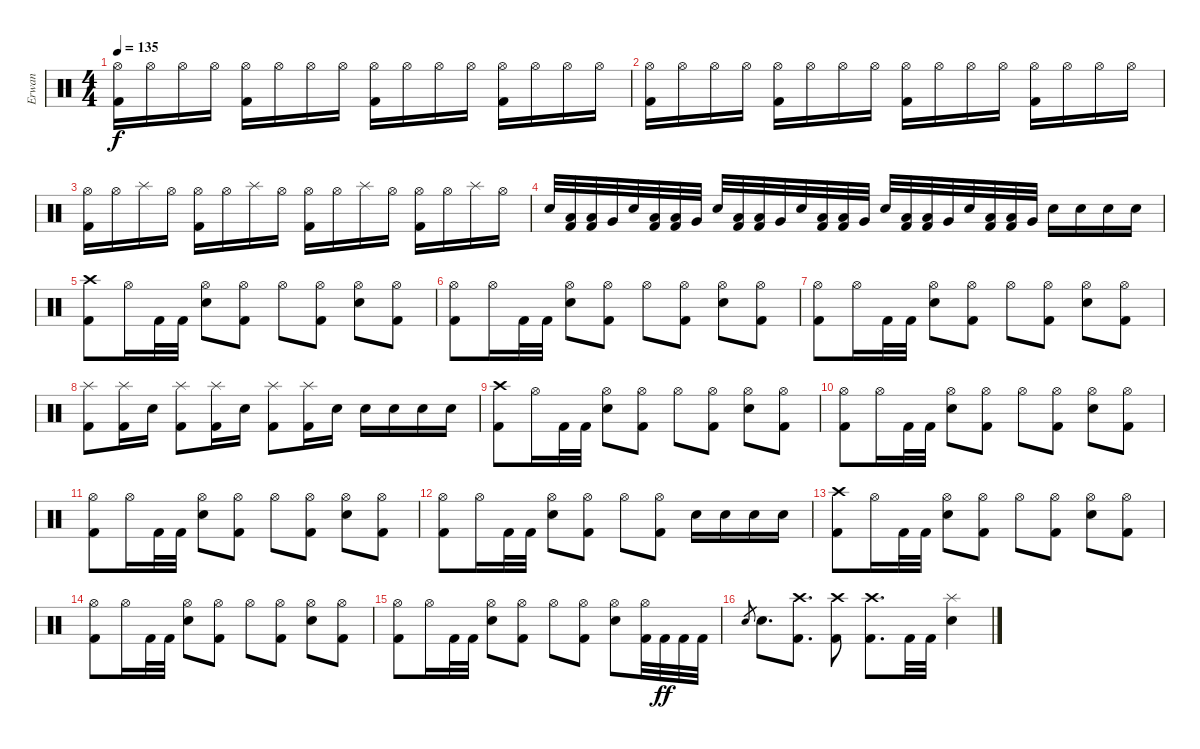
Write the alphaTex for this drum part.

\track ("Erwan" "Erwan") {instrument percussion}
\staff {score}
\articulation defaults
\ts (4 4)
\tempo 135
\clef neutral
\ks c
("Hi-Hat (open)" "Kick (hit) 2").16{dy f} "Hi-Hat (open)".16 "Hi-Hat (open)".16 "Hi-Hat (open)".16 ("Hi-Hat (open)" "Kick (hit) 2").16 "Hi-Hat (open)".16 "Hi-Hat (open)".16 "Hi-Hat (open)".16 ("Hi-Hat (open)" "Kick (hit) 2").16 "Hi-Hat (open)".16 "Hi-Hat (open)".16 "Hi-Hat (open)".16 ("Hi-Hat (open)" "Kick (hit) 2").16 "Hi-Hat (open)".16 "Hi-Hat (open)".16 "Hi-Hat (open)".16 |
("Hi-Hat (open)" "Kick (hit) 2").16 "Hi-Hat (open)".16 "Hi-Hat (open)".16 "Hi-Hat (open)".16 ("Hi-Hat (open)" "Kick (hit) 2").16 "Hi-Hat (open)".16 "Hi-Hat (open)".16 "Hi-Hat (open)".16 ("Hi-Hat (open)" "Kick (hit) 2").16 "Hi-Hat (open)".16 "Hi-Hat (open)".16 "Hi-Hat (open)".16 ("Hi-Hat (open)" "Kick (hit) 2").16 "Hi-Hat (open)".16 "Hi-Hat (open)".16 "Hi-Hat (open)".16 |
("Hi-Hat (open)" "Kick (hit) 2").16 "Hi-Hat (open)".16 "Splash (hit)".16 "Hi-Hat (open)".16 ("Hi-Hat (open)" "Kick (hit) 2").16 "Hi-Hat (open)".16 "Splash (hit)".16 "Hi-Hat (open)".16 ("Hi-Hat (open)" "Kick (hit) 2").16 "Hi-Hat (open)".16 "Splash (hit)".16 "Hi-Hat (open)".16 ("Hi-Hat (open)" "Kick (hit) 2").16 "Hi-Hat (open)".16 "Splash (hit)".16 "Hi-Hat (open)".16 |
"Electric Snare (hit)".32 ("Low Tom (hit)" "Kick (hit) 2").32 ("Low Tom (hit)" "Kick (hit) 2").32 "Very Low Tom (hit)".32 "Electric Snare (hit)".32 ("Low Tom (hit)" "Kick (hit) 2").32 ("Low Tom (hit)" "Kick (hit) 2").32 "Very Low Tom (hit)".32 "Electric Snare (hit)".32 ("Low Tom (hit)" "Kick (hit) 2").32 ("Low Tom (hit)" "Kick (hit) 2").32 "Very Low Tom (hit)".32 "Electric Snare (hit)".32 ("Low Tom (hit)" "Kick (hit) 2").32 ("Low Tom (hit)" "Kick (hit) 2").32 "Very Low Tom (hit)".32 "Electric Snare (hit)".32 ("Low Tom (hit)" "Kick (hit) 2").32 ("Low Tom (hit)" "Kick (hit) 2").32 "Very Low Tom (hit)".32 "Electric Snare (hit)".32 ("Low Tom (hit)" "Kick (hit) 2").32 ("Low Tom (hit)" "Kick (hit) 2").32 "Very Low Tom (hit)".32 "Electric Snare (hit)".16 "Electric Snare (hit)".16 "Electric Snare (hit)".16 "Electric Snare (hit)".16 |
("Crash high (hit)" "Kick (hit) 2").8 "Hi-Hat (open)".16 "Kick (hit) 2".32 "Kick (hit) 2".32 ("Hi-Hat (open)" "Electric Snare (hit)").8 ("Hi-Hat (open)" "Kick (hit) 2").8 "Hi-Hat (open)".8 ("Hi-Hat (open)" "Kick (hit) 2").8 ("Hi-Hat (open)" "Electric Snare (hit)").8 ("Hi-Hat (open)" "Kick (hit) 2").8 |
("Hi-Hat (open)" "Kick (hit) 2").8 "Hi-Hat (open)".16 "Kick (hit) 2".32 "Kick (hit) 2".32 ("Hi-Hat (open)" "Electric Snare (hit)").8 ("Hi-Hat (open)" "Kick (hit) 2").8 "Hi-Hat (open)".8 ("Hi-Hat (open)" "Kick (hit) 2").8 ("Hi-Hat (open)" "Electric Snare (hit)").8 ("Hi-Hat (open)" "Kick (hit) 2").8 |
("Hi-Hat (open)" "Kick (hit) 2").8 "Hi-Hat (open)".16 "Kick (hit) 2".32 "Kick (hit) 2".32 ("Hi-Hat (open)" "Electric Snare (hit)").8 ("Hi-Hat (open)" "Kick (hit) 2").8 "Hi-Hat (open)".8 ("Hi-Hat (open)" "Kick (hit) 2").8 ("Hi-Hat (open)" "Electric Snare (hit)").8 ("Hi-Hat (open)" "Kick (hit) 2").8 |
("Splash (hit)" "Kick (hit) 2").8 ("Splash (hit)" "Kick (hit) 2").16 "Electric Snare (hit)".16 ("Splash (hit)" "Kick (hit) 2").8 ("Splash (hit)" "Kick (hit) 2").16 "Electric Snare (hit)".16 ("Splash (hit)" "Kick (hit) 2").8 ("Splash (hit)" "Kick (hit) 2").16 "Electric Snare (hit)".16 "Electric Snare (hit)".16 "Electric Snare (hit)".16 "Electric Snare (hit)".16 "Electric Snare (hit)".16 |
("Crash high (hit)" "Kick (hit) 2").8 "Hi-Hat (open)".16 "Kick (hit) 2".32 "Kick (hit) 2".32 ("Hi-Hat (open)" "Electric Snare (hit)").8 ("Hi-Hat (open)" "Kick (hit) 2").8 "Hi-Hat (open)".8 ("Hi-Hat (open)" "Kick (hit) 2").8 ("Hi-Hat (open)" "Electric Snare (hit)").8 ("Hi-Hat (open)" "Kick (hit) 2").8 |
("Hi-Hat (open)" "Kick (hit) 2").8 "Hi-Hat (open)".16 "Kick (hit) 2".32 "Kick (hit) 2".32 ("Hi-Hat (open)" "Electric Snare (hit)").8 ("Hi-Hat (open)" "Kick (hit) 2").8 "Hi-Hat (open)".8 ("Hi-Hat (open)" "Kick (hit) 2").8 ("Hi-Hat (open)" "Electric Snare (hit)").8 ("Hi-Hat (open)" "Kick (hit) 2").8 |
("Hi-Hat (open)" "Kick (hit) 2").8 "Hi-Hat (open)".16 "Kick (hit) 2".32 "Kick (hit) 2".32 ("Hi-Hat (open)" "Electric Snare (hit)").8 ("Hi-Hat (open)" "Kick (hit) 2").8 "Hi-Hat (open)".8 ("Hi-Hat (open)" "Kick (hit) 2").8 ("Hi-Hat (open)" "Electric Snare (hit)").8 ("Hi-Hat (open)" "Kick (hit) 2").8 |
("Hi-Hat (open)" "Kick (hit) 2").8 "Hi-Hat (open)".16 "Kick (hit) 2".32 "Kick (hit) 2".32 ("Hi-Hat (open)" "Electric Snare (hit)").8 ("Hi-Hat (open)" "Kick (hit) 2").8 "Hi-Hat (open)".8 ("Hi-Hat (open)" "Kick (hit) 2").8 "Electric Snare (hit)".16 "Electric Snare (hit)".16 "Electric Snare (hit)".16 "Electric Snare (hit)".16 |
("Crash high (hit)" "Kick (hit) 2").8 "Hi-Hat (open)".16 "Kick (hit) 2".32 "Kick (hit) 2".32 ("Hi-Hat (open)" "Electric Snare (hit)").8 ("Hi-Hat (open)" "Kick (hit) 2").8 "Hi-Hat (open)".8 ("Hi-Hat (open)" "Kick (hit) 2").8 ("Hi-Hat (open)" "Electric Snare (hit)").8 ("Hi-Hat (open)" "Kick (hit) 2").8 |
("Hi-Hat (open)" "Kick (hit) 2").8 "Hi-Hat (open)".16 "Kick (hit) 2".32 "Kick (hit) 2".32 ("Hi-Hat (open)" "Electric Snare (hit)").8 ("Hi-Hat (open)" "Kick (hit) 2").8 "Hi-Hat (open)".8 ("Hi-Hat (open)" "Kick (hit) 2").8 ("Hi-Hat (open)" "Electric Snare (hit)").8 ("Hi-Hat (open)" "Kick (hit) 2").8 |
("Hi-Hat (open)" "Kick (hit) 2").8 "Hi-Hat (open)".16 "Kick (hit) 2".32 "Kick (hit) 2".32 ("Hi-Hat (open)" "Electric Snare (hit)").8 ("Hi-Hat (open)" "Kick (hit) 2").8 "Hi-Hat (open)".8 ("Hi-Hat (open)" "Kick (hit) 2").8 ("Hi-Hat (open)" "Electric Snare (hit)").8 ("Hi-Hat (open)" "Kick (hit) 2").32 "Kick (hit) 2".32{dy ff} "Kick (hit) 2".32 "Kick (hit) 2".32 |
"Electric Snare (hit)".8{gr} "Electric Snare (hit)".8{d} ("Crash high (hit)" "Kick (hit) 2").8{d} ("Crash high (hit)" "Kick (hit) 2").8 ("Crash high (hit)" "Kick (hit) 2").8{d} "Kick (hit) 2".32 "Kick (hit) 2".32 ("Splash (hit)" "Electric Snare (hit)").4
